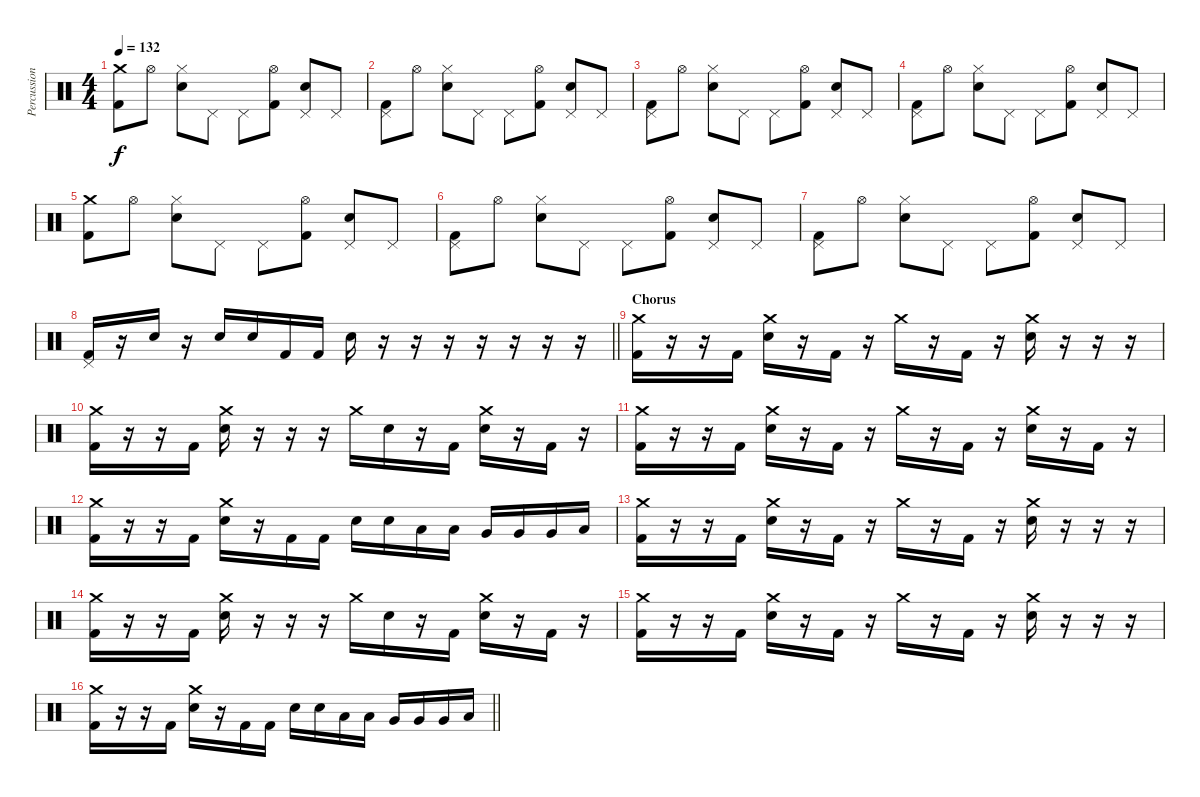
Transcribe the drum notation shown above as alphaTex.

\track ("Percussion" "Percussion") {instrument percussion}
\staff {score}
\articulation defaults
\ts (4 4)
\tempo 132
\clef neutral
\ks c
("Crash medium (hit)" "Kick (hit) 2").8{dy f} "Hi-Hat (open)".8 ("Hi-Hat (closed)" "Electric Snare (hit)").8 "Pedal Hi-Hat (hit)".8 "Pedal Hi-Hat (hit)".8 ("Hi-Hat (open)" "Kick (hit) 2").8 ("Pedal Hi-Hat (hit)" "Electric Snare (hit)").8 "Pedal Hi-Hat (hit)".8 |
("Pedal Hi-Hat (hit)" "Kick (hit) 2").8 "Hi-Hat (open)".8 ("Hi-Hat (closed)" "Electric Snare (hit)").8 "Pedal Hi-Hat (hit)".8 "Pedal Hi-Hat (hit)".8 ("Hi-Hat (open)" "Kick (hit) 2").8 ("Pedal Hi-Hat (hit)" "Electric Snare (hit)").8 "Pedal Hi-Hat (hit)".8 |
("Pedal Hi-Hat (hit)" "Kick (hit) 2").8 "Hi-Hat (open)".8 ("Hi-Hat (closed)" "Electric Snare (hit)").8 "Pedal Hi-Hat (hit)".8 "Pedal Hi-Hat (hit)".8 ("Hi-Hat (open)" "Kick (hit) 2").8 ("Pedal Hi-Hat (hit)" "Electric Snare (hit)").8 "Pedal Hi-Hat (hit)".8 |
("Pedal Hi-Hat (hit)" "Kick (hit) 2").8 "Hi-Hat (open)".8 ("Hi-Hat (closed)" "Electric Snare (hit)").8 "Pedal Hi-Hat (hit)".8 "Pedal Hi-Hat (hit)".8 ("Hi-Hat (open)" "Kick (hit) 2").8 ("Pedal Hi-Hat (hit)" "Electric Snare (hit)").8 "Pedal Hi-Hat (hit)".8 |
("Crash medium (hit)" "Kick (hit) 2").8 "Hi-Hat (open)".8 ("Hi-Hat (closed)" "Electric Snare (hit)").8 "Pedal Hi-Hat (hit)".8 "Pedal Hi-Hat (hit)".8 ("Hi-Hat (open)" "Kick (hit) 2").8 ("Pedal Hi-Hat (hit)" "Electric Snare (hit)").8 "Pedal Hi-Hat (hit)".8 |
("Pedal Hi-Hat (hit)" "Kick (hit) 2").8 "Hi-Hat (open)".8 ("Hi-Hat (closed)" "Electric Snare (hit)").8 "Pedal Hi-Hat (hit)".8 "Pedal Hi-Hat (hit)".8 ("Hi-Hat (open)" "Kick (hit) 2").8 ("Pedal Hi-Hat (hit)" "Electric Snare (hit)").8 "Pedal Hi-Hat (hit)".8 |
("Pedal Hi-Hat (hit)" "Kick (hit) 2").8 "Hi-Hat (open)".8 ("Hi-Hat (closed)" "Electric Snare (hit)").8 "Pedal Hi-Hat (hit)".8 "Pedal Hi-Hat (hit)".8 ("Hi-Hat (open)" "Kick (hit) 2").8 ("Pedal Hi-Hat (hit)" "Electric Snare (hit)").8 "Pedal Hi-Hat (hit)".8 |
\barLineRight lightlight
("Pedal Hi-Hat (hit)" "Kick (hit) 2").16 r.16 "Electric Snare (hit)".16 r.16 "Electric Snare (hit)".16 "Electric Snare (hit)".16 "Kick (hit) 2".16 "Kick (hit) 2".16 "Electric Snare (hit)".16 r.16 r.16 r.16 r.16 r.16 r.16 r.16 |
\section ("" "Chorus")
("Crash medium (hit)" "Kick (hit) 2").16 r.16 r.16 "Kick (hit) 2".16 ("Crash medium (hit)" "Electric Snare (hit)").16 r.16 "Kick (hit) 2".16 r.16 "Crash medium (hit)".16 r.16 "Kick (hit) 2".16 r.16 ("Crash medium (hit)" "Electric Snare (hit)").16 r.16 r.16 r.16 |
("Crash medium (hit)" "Kick (hit) 2").16 r.16 r.16 "Kick (hit) 2".16 ("Crash medium (hit)" "Electric Snare (hit)").16 r.16 r.16 r.16 "Crash medium (hit)".16 "Electric Snare (hit)".16 r.16 "Kick (hit) 2".16 ("Crash medium (hit)" "Electric Snare (hit)").16 r.16 "Kick (hit) 2".16 r.16 |
("Crash medium (hit)" "Kick (hit) 2").16 r.16 r.16 "Kick (hit) 2".16 ("Crash medium (hit)" "Electric Snare (hit)").16 r.16 "Kick (hit) 2".16 r.16 "Crash medium (hit)".16 r.16 "Kick (hit) 2".16 r.16 ("Crash medium (hit)" "Electric Snare (hit)").16 r.16 "Kick (hit) 2".16 r.16 |
("Crash medium (hit)" "Kick (hit) 2").16 r.16 r.16 "Kick (hit) 2".16 ("Crash medium (hit)" "Electric Snare (hit)").16 r.16 "Kick (hit) 2".16 "Kick (hit) 2".16 "Electric Snare (hit)".16 "Electric Snare (hit)".16 "Low Tom (hit)".16 "Low Tom (hit)".16 "Very Low Tom (hit)".16 "Very Low Tom (hit)".16 "Very Low Tom (hit)".16 "Low Tom (hit)".16 |
("Crash medium (hit)" "Kick (hit) 2").16 r.16 r.16 "Kick (hit) 2".16 ("Crash medium (hit)" "Electric Snare (hit)").16 r.16 "Kick (hit) 2".16 r.16 "Crash medium (hit)".16 r.16 "Kick (hit) 2".16 r.16 ("Crash medium (hit)" "Electric Snare (hit)").16 r.16 r.16 r.16 |
("Crash medium (hit)" "Kick (hit) 2").16 r.16 r.16 "Kick (hit) 2".16 ("Crash medium (hit)" "Electric Snare (hit)").16 r.16 r.16 r.16 "Crash medium (hit)".16 "Electric Snare (hit)".16 r.16 "Kick (hit) 2".16 ("Crash medium (hit)" "Electric Snare (hit)").16 r.16 "Kick (hit) 2".16 r.16 |
("Crash medium (hit)" "Kick (hit) 2").16 r.16 r.16 "Kick (hit) 2".16 ("Crash medium (hit)" "Electric Snare (hit)").16 r.16 "Kick (hit) 2".16 r.16 "Crash medium (hit)".16 r.16 "Kick (hit) 2".16 r.16 ("Crash medium (hit)" "Electric Snare (hit)").16 r.16 r.16 r.16 |
\barLineRight lightlight
("Crash medium (hit)" "Kick (hit) 2").16 r.16 r.16 "Kick (hit) 2".16 ("Crash medium (hit)" "Electric Snare (hit)").16 r.16 "Kick (hit) 2".16 "Kick (hit) 2".16 "Electric Snare (hit)".16 "Electric Snare (hit)".16 "Low Tom (hit)".16 "Low Tom (hit)".16 "Very Low Tom (hit)".16 "Very Low Tom (hit)".16 "Very Low Tom (hit)".16 "Low Tom (hit)".16
